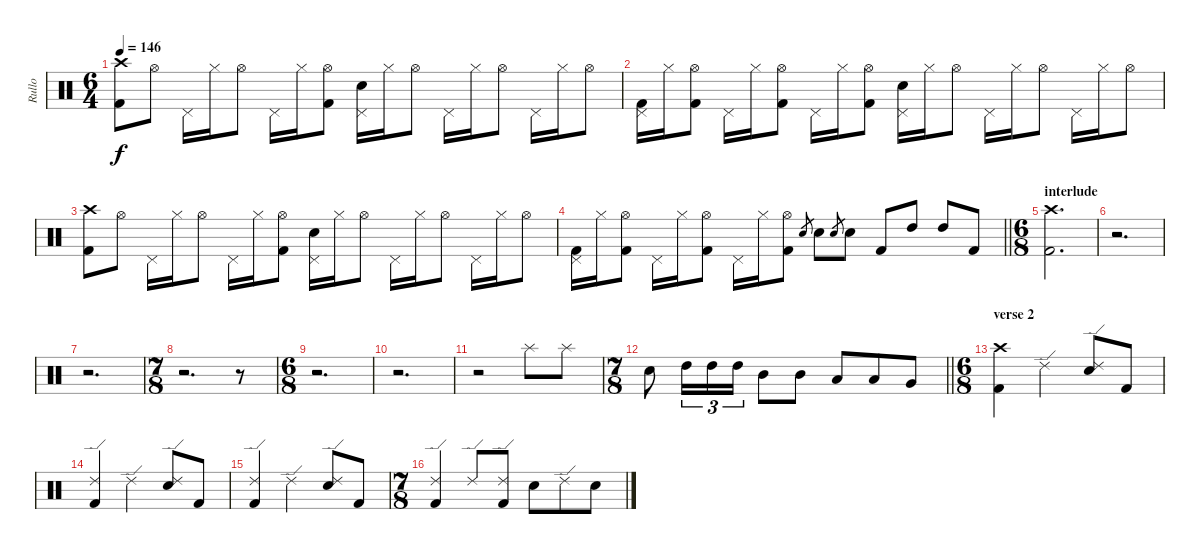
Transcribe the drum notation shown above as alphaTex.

\track ("Rullo" "Rullo") {instrument percussion}
\staff {score}
\articulation defaults
\ts (6 4)
\tempo 146
\clef neutral
\ks c
("Crash high (hit)" "Kick (hit) 2").8{dy f} "Hi-Hat (open)".8 "Pedal Hi-Hat (hit)".16 "Hi-Hat (closed)".16 "Hi-Hat (open)".8 "Pedal Hi-Hat (hit)".16 "Hi-Hat (closed)".16 ("Hi-Hat (open)" "Kick (hit) 2").8 ("Pedal Hi-Hat (hit)" "Electric Snare (hit)").16 "Hi-Hat (closed)".16 "Hi-Hat (open)".8 "Pedal Hi-Hat (hit)".16 "Hi-Hat (closed)".16 "Hi-Hat (open)".8 "Pedal Hi-Hat (hit)".16 "Hi-Hat (closed)".16 "Hi-Hat (open)".8 |
("Pedal Hi-Hat (hit)" "Kick (hit) 2").16 "Hi-Hat (closed)".16 ("Hi-Hat (open)" "Kick (hit) 2").8 "Pedal Hi-Hat (hit)".16 "Hi-Hat (closed)".16 ("Hi-Hat (open)" "Kick (hit) 2").8 "Pedal Hi-Hat (hit)".16 "Hi-Hat (closed)".16 ("Hi-Hat (open)" "Kick (hit) 2").8 ("Pedal Hi-Hat (hit)" "Electric Snare (hit)").16 "Hi-Hat (closed)".16 "Hi-Hat (open)".8 "Pedal Hi-Hat (hit)".16 "Hi-Hat (closed)".16 "Hi-Hat (open)".8 "Pedal Hi-Hat (hit)".16 "Hi-Hat (closed)".16 "Hi-Hat (open)".8 |
("Crash high (hit)" "Kick (hit) 2").8 "Hi-Hat (open)".8 "Pedal Hi-Hat (hit)".16 "Hi-Hat (closed)".16 "Hi-Hat (open)".8 "Pedal Hi-Hat (hit)".16 "Hi-Hat (closed)".16 ("Hi-Hat (open)" "Kick (hit) 2").8 ("Pedal Hi-Hat (hit)" "Electric Snare (hit)").16 "Hi-Hat (closed)".16 "Hi-Hat (open)".8 "Pedal Hi-Hat (hit)".16 "Hi-Hat (closed)".16 "Hi-Hat (open)".8 "Pedal Hi-Hat (hit)".16 "Hi-Hat (closed)".16 "Hi-Hat (open)".8 |
\barLineRight lightlight
("Pedal Hi-Hat (hit)" "Kick (hit) 2").16 "Hi-Hat (closed)".16 ("Hi-Hat (open)" "Kick (hit) 2").8 "Pedal Hi-Hat (hit)".16 "Hi-Hat (closed)".16 ("Hi-Hat (open)" "Kick (hit) 2").8 "Pedal Hi-Hat (hit)".16 "Hi-Hat (closed)".16 ("Hi-Hat (open)" "Kick (hit) 2").8 "Electric Snare (hit)".8{gr} "Electric Snare (hit)".8 "Electric Snare (hit)".8{gr} "Electric Snare (hit)".8 "Kick (hit) 2".8 "High Tom (hit)".8 "High Tom (hit)".8 "Kick (hit) 2".8 |
\ts (6 8)
\section ("" "interlude")
("Crash high (hit)" "Kick (hit) 2").2{d} |
r.2{d} |
r.2{d} |
\ts (7 8)
r.2{d} r.8 |
\ts (6 8)
r.2{d} |
r.2{d} |
r.2 "Splash (hit)".8 "Splash (hit)".8 |
\ts (7 8)
\barLineRight lightlight "Electric Snare (hit)".8 "High Tom (hit)".16{tu (3 2)} "High Tom (hit)".16{tu (3 2)} "High Tom (hit)".16{tu (3 2)} "Mid Tom (hit)".8 "Mid Tom (hit)".8 "Low Tom (hit)".8 "Low Tom (hit)".8 "Very Low Tom (hit)".8
|
\ts (6 8)
\section ("" "verse 2")
("Crash high (hit)" "Kick (hit) 2").4 "Ride (edge) 2".4 ("Ride (edge) 2" "Electric Snare (hit)").8 "Kick (hit) 2".8 |
("Ride (edge) 2" "Kick (hit) 2").4 "Ride (edge) 2".4 ("Ride (edge) 2" "Electric Snare (hit)").8 "Kick (hit) 2".8 |
("Ride (edge) 2" "Kick (hit) 2").4 "Ride (edge) 2".4 ("Ride (edge) 2" "Electric Snare (hit)").8 "Kick (hit) 2".8 |
\ts (7 8)
("Ride (edge) 2" "Kick (hit) 2").4 "Ride (edge) 2".8 ("Ride (edge) 2" "Kick (hit) 2").8 "Electric Snare (hit)".8 "Ride (edge) 2".8 "Electric Snare (hit)".8
